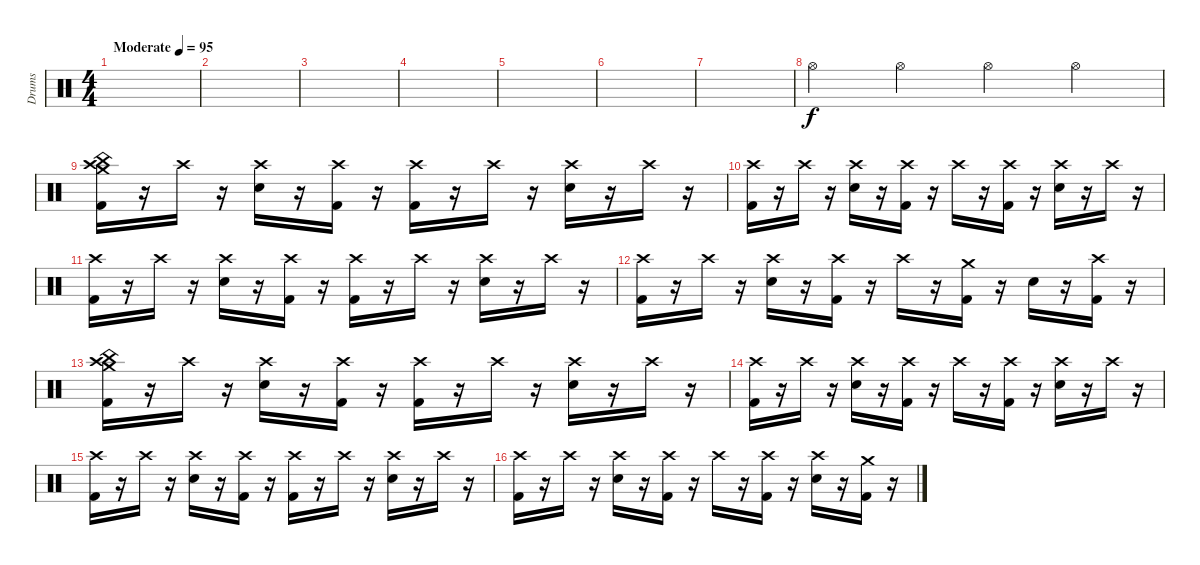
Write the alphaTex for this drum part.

\track ("Drums" "Drums") {instrument percussion}
\staff {score}
\articulation defaults
\ts (4 4)
\tempo (95 "Moderate")
\clef neutral
\ks c
|
|
|
|
|
|
|
"Hi-Hat (open)".4 "Hi-Hat (open)".4 "Hi-Hat (open)".4 "Hi-Hat (open)".4 |
("Crash medium (hit)" "Crash high (hit)" "China (hit)" "Kick (hit) 2").16 r.16 "Crash high (hit)".16 r.16 ("Crash high (hit)" "Electric Snare (hit)").16 r.16 ("Crash high (hit)" "Kick (hit) 2").16 r.16 ("Crash high (hit)" "Kick (hit) 2").16 r.16 "Crash high (hit)".16 r.16 ("Crash high (hit)" "Electric Snare (hit)").16 r.16 "Crash high (hit)".16 r.16 |
("Crash high (hit)" "Kick (hit) 2").16 r.16 "Crash high (hit)".16 r.16 ("Crash high (hit)" "Electric Snare (hit)").16 r.16 ("Crash high (hit)" "Kick (hit) 2").16 r.16 "Crash high (hit)".16 r.16 ("Crash high (hit)" "Kick (hit) 2").16 r.16 ("Crash high (hit)" "Electric Snare (hit)").16 r.16 "Crash high (hit)".16 r.16 |
("Crash high (hit)" "Kick (hit) 2").16 r.16 "Crash high (hit)".16 r.16 ("Crash high (hit)" "Electric Snare (hit)").16 r.16 ("Crash high (hit)" "Kick (hit) 2").16 r.16 ("Crash high (hit)" "Kick (hit) 2").16 r.16 "Crash high (hit)".16 r.16 ("Crash high (hit)" "Electric Snare (hit)").16 r.16 "Crash high (hit)".16 r.16 |
("Crash high (hit)" "Kick (hit) 2").16 r.16 "Crash high (hit)".16 r.16 ("Crash high (hit)" "Electric Snare (hit)").16 r.16 ("Crash high (hit)" "Kick (hit) 2").16 r.16 "Crash high (hit)".16 r.16 ("Crash medium (hit)" "Kick (hit) 2").16 r.16 "Electric Snare (hit)".16 r.16 ("Crash high (hit)" "Kick (hit) 2").16 r.16 |
("Crash medium (hit)" "Crash high (hit)" "China (hit)" "Kick (hit) 2").16 r.16 "Crash high (hit)".16 r.16 ("Crash high (hit)" "Electric Snare (hit)").16 r.16 ("Crash high (hit)" "Kick (hit) 2").16 r.16 ("Crash high (hit)" "Kick (hit) 2").16 r.16 "Crash high (hit)".16 r.16 ("Crash high (hit)" "Electric Snare (hit)").16 r.16 "Crash high (hit)".16 r.16 |
("Crash high (hit)" "Kick (hit) 2").16 r.16 "Crash high (hit)".16 r.16 ("Crash high (hit)" "Electric Snare (hit)").16 r.16 ("Crash high (hit)" "Kick (hit) 2").16 r.16 "Crash high (hit)".16 r.16 ("Crash high (hit)" "Kick (hit) 2").16 r.16 ("Crash high (hit)" "Electric Snare (hit)").16 r.16 "Crash high (hit)".16 r.16 |
("Crash high (hit)" "Kick (hit) 2").16 r.16 "Crash high (hit)".16 r.16 ("Crash high (hit)" "Electric Snare (hit)").16 r.16 ("Crash high (hit)" "Kick (hit) 2").16 r.16 ("Crash high (hit)" "Kick (hit) 2").16 r.16 "Crash high (hit)".16 r.16 ("Crash high (hit)" "Electric Snare (hit)").16 r.16 "Crash high (hit)".16 r.16 |
("Crash high (hit)" "Kick (hit) 2").16 r.16 "Crash high (hit)".16 r.16 ("Crash high (hit)" "Electric Snare (hit)").16 r.16 ("Crash high (hit)" "Kick (hit) 2").16 r.16 "Crash high (hit)".16 r.16 ("Crash high (hit)" "Kick (hit) 2").16 r.16 ("Crash high (hit)" "Electric Snare (hit)").16 r.16 ("Crash medium (hit)" "Kick (hit) 2").16 r.16
